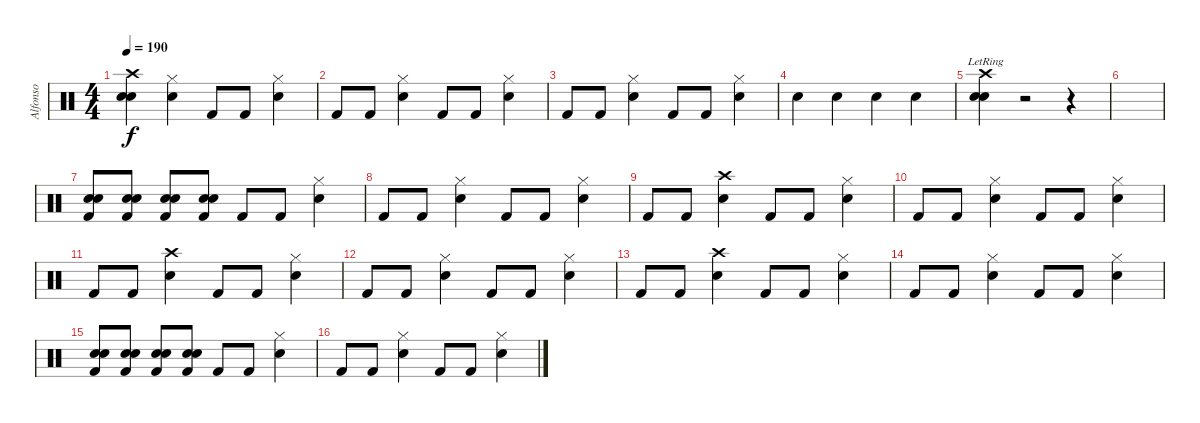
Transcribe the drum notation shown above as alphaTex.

\track ("Alfonso" "Alfonso") {instrument percussion}
\staff {score}
\articulation defaults
\ts (4 4)
\tempo 190
\clef neutral
\ks c
("Crash high (hit)" "Electric Snare (hit)" "Snare (hit) 2").4{dy f} ("Hi-Hat (closed)" "Electric Snare (hit)").4 "Kick (hit) 2".8 "Kick (hit) 2".8 ("Hi-Hat (closed)" "Electric Snare (hit)").4 |
"Kick (hit) 2".8 "Kick (hit) 2".8 ("Hi-Hat (closed)" "Electric Snare (hit)").4 "Kick (hit) 2".8 "Kick (hit) 2".8 ("Hi-Hat (closed)" "Electric Snare (hit)").4 |
"Kick (hit) 2".8 "Kick (hit) 2".8 ("Hi-Hat (closed)" "Electric Snare (hit)").4 "Kick (hit) 2".8 "Kick (hit) 2".8 ("Hi-Hat (closed)" "Electric Snare (hit)").4 |
"Electric Snare (hit)".4 "Electric Snare (hit)".4 "Electric Snare (hit)".4 "Electric Snare (hit)".4 |
("Crash high (hit)"{lr} "Electric Snare (hit)"{lr} "Snare (hit) 2"{lr}).4 r.2 r.4 |
|
("Kick (hit) 2" "Electric Snare (hit)" "Snare (hit) 2").8 ("Kick (hit) 2" "Electric Snare (hit)" "Snare (hit) 2").8 ("Kick (hit) 2" "Electric Snare (hit)" "Snare (hit) 2").8 ("Kick (hit) 2" "Electric Snare (hit)" "Snare (hit) 2").8 "Kick (hit) 2".8 "Kick (hit) 2".8 ("Hi-Hat (closed)" "Electric Snare (hit)").4 |
"Kick (hit) 2".8 "Kick (hit) 2".8 ("Hi-Hat (closed)" "Electric Snare (hit)").4 "Kick (hit) 2".8 "Kick (hit) 2".8 ("Hi-Hat (closed)" "Electric Snare (hit)").4 |
"Kick (hit) 2".8 "Kick (hit) 2".8 ("Crash high (hit)" "Electric Snare (hit)").4 "Kick (hit) 2".8 "Kick (hit) 2".8 ("Hi-Hat (closed)" "Electric Snare (hit)").4 |
"Kick (hit) 2".8 "Kick (hit) 2".8 ("Hi-Hat (closed)" "Electric Snare (hit)").4 "Kick (hit) 2".8 "Kick (hit) 2".8 ("Hi-Hat (closed)" "Electric Snare (hit)").4 |
"Kick (hit) 2".8 "Kick (hit) 2".8 ("Crash high (hit)" "Electric Snare (hit)").4 "Kick (hit) 2".8 "Kick (hit) 2".8 ("Hi-Hat (closed)" "Electric Snare (hit)").4 |
"Kick (hit) 2".8 "Kick (hit) 2".8 ("Hi-Hat (closed)" "Electric Snare (hit)").4 "Kick (hit) 2".8 "Kick (hit) 2".8 ("Hi-Hat (closed)" "Electric Snare (hit)").4 |
"Kick (hit) 2".8 "Kick (hit) 2".8 ("Crash high (hit)" "Electric Snare (hit)").4 "Kick (hit) 2".8 "Kick (hit) 2".8 ("Hi-Hat (closed)" "Electric Snare (hit)").4 |
"Kick (hit) 2".8 "Kick (hit) 2".8 ("Hi-Hat (closed)" "Electric Snare (hit)").4 "Kick (hit) 2".8 "Kick (hit) 2".8 ("Hi-Hat (closed)" "Electric Snare (hit)").4 |
("Kick (hit) 2" "Electric Snare (hit)" "Snare (hit) 2").8 ("Kick (hit) 2" "Electric Snare (hit)" "Snare (hit) 2").8 ("Kick (hit) 2" "Electric Snare (hit)" "Snare (hit) 2").8 ("Kick (hit) 2" "Electric Snare (hit)" "Snare (hit) 2").8 "Kick (hit) 2".8 "Kick (hit) 2".8 ("Hi-Hat (closed)" "Electric Snare (hit)").4 |
"Kick (hit) 2".8 "Kick (hit) 2".8 ("Hi-Hat (closed)" "Electric Snare (hit)").4 "Kick (hit) 2".8 "Kick (hit) 2".8 ("Hi-Hat (closed)" "Electric Snare (hit)").4
